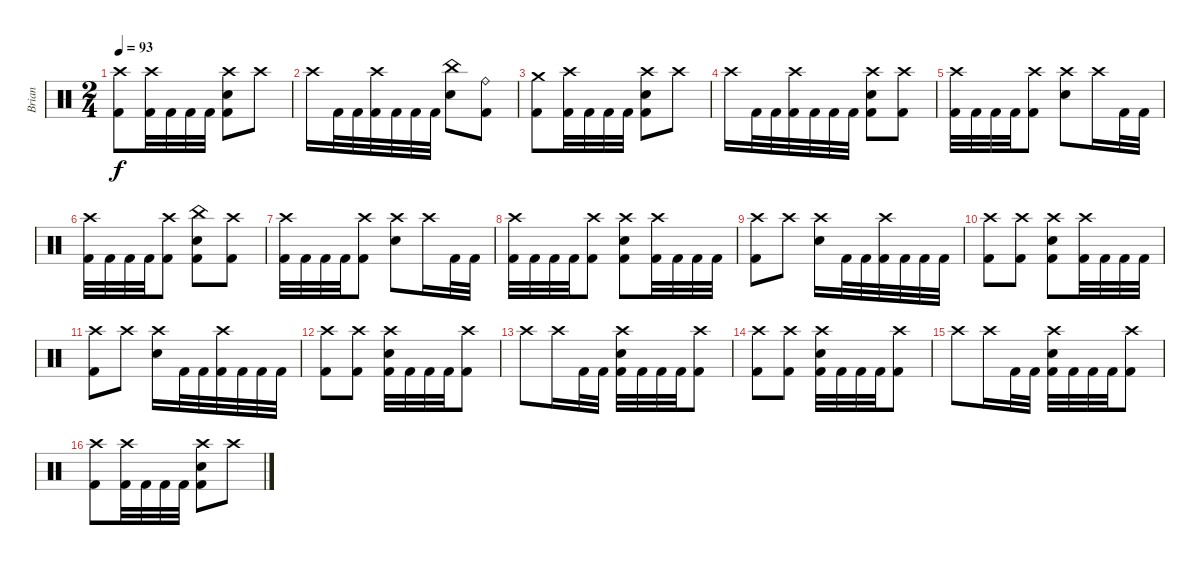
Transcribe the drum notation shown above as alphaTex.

\track ("Brian" "Brian") {instrument percussion}
\staff {score}
\articulation defaults
\ts (2 4)
\tempo 93
\clef neutral
\ks c
("Crash high (hit)" "Kick (hit) 2").8{dy f} ("Crash high (hit)" "Kick (hit) 2").32 "Kick (hit) 2".32 "Kick (hit) 2".32 "Kick (hit) 2".32 ("Crash high (hit)" "Electric Snare (hit)" "Kick (hit) 2").8 "Crash high (hit)".8 |
"Crash high (hit)".16 "Kick (hit) 2".32 "Kick (hit) 2".32 ("Crash high (hit)" "Kick (hit) 2").32 "Kick (hit) 2".32 "Kick (hit) 2".32 "Kick (hit) 2".32 ("China (hit)" "Electric Snare (hit)").8 ("Ride (bell)" "Kick (hit) 2").8 |
("Crash medium (hit)" "Kick (hit) 2").8 ("Crash high (hit)" "Kick (hit) 2").32 "Kick (hit) 2".32 "Kick (hit) 2".32 "Kick (hit) 2".32 ("Crash high (hit)" "Electric Snare (hit)" "Kick (hit) 2").8 "Crash high (hit)".8 |
"Crash high (hit)".16 "Kick (hit) 2".32 "Kick (hit) 2".32 ("Crash high (hit)" "Kick (hit) 2").32 "Kick (hit) 2".32 "Kick (hit) 2".32 "Kick (hit) 2".32 ("Crash high (hit)" "Electric Snare (hit)" "Kick (hit) 2").8 ("Crash high (hit)" "Kick (hit) 2").8 |
("Crash high (hit)" "Kick (hit) 2").32 "Kick (hit) 2".32 "Kick (hit) 2".32 "Kick (hit) 2".32 ("Crash high (hit)" "Kick (hit) 2").8 ("Crash high (hit)" "Electric Snare (hit)").8 "Crash high (hit)".16 "Kick (hit) 2".32 "Kick (hit) 2".32 |
("Crash high (hit)" "Kick (hit) 2").32 "Kick (hit) 2".32 "Kick (hit) 2".32 "Kick (hit) 2".32 ("Crash high (hit)" "Kick (hit) 2").8 ("China (hit)" "Electric Snare (hit)" "Kick (hit) 2").8 ("Crash high (hit)" "Kick (hit) 2").8 |
("Crash high (hit)" "Kick (hit) 2").32 "Kick (hit) 2".32 "Kick (hit) 2".32 "Kick (hit) 2".32 ("Crash high (hit)" "Kick (hit) 2").8 ("Crash high (hit)" "Electric Snare (hit)").8 "Crash high (hit)".16 "Kick (hit) 2".32 "Kick (hit) 2".32 |
("Crash high (hit)" "Kick (hit) 2").32 "Kick (hit) 2".32 "Kick (hit) 2".32 "Kick (hit) 2".32 ("Crash high (hit)" "Kick (hit) 2").8 ("Crash high (hit)" "Electric Snare (hit)" "Kick (hit) 2").8 ("Crash high (hit)" "Kick (hit) 2").32 "Kick (hit) 2".32 "Kick (hit) 2".32 "Kick (hit) 2".32 |
("Crash high (hit)" "Kick (hit) 2").8 "Crash high (hit)".8 ("Crash high (hit)" "Electric Snare (hit)").16 "Kick (hit) 2".32 "Kick (hit) 2".32 ("Crash high (hit)" "Kick (hit) 2").32 "Kick (hit) 2".32 "Kick (hit) 2".32 "Kick (hit) 2".32 |
("Crash high (hit)" "Kick (hit) 2").8 ("Crash high (hit)" "Kick (hit) 2").8 ("Crash high (hit)" "Electric Snare (hit)" "Kick (hit) 2").8 ("Crash high (hit)" "Kick (hit) 2").32 "Kick (hit) 2".32 "Kick (hit) 2".32 "Kick (hit) 2".32 |
("Crash high (hit)" "Kick (hit) 2").8 "Crash high (hit)".8 ("Crash high (hit)" "Electric Snare (hit)").16 "Kick (hit) 2".32 "Kick (hit) 2".32 ("Crash high (hit)" "Kick (hit) 2").32 "Kick (hit) 2".32 "Kick (hit) 2".32 "Kick (hit) 2".32 |
("Crash high (hit)" "Kick (hit) 2").8 ("Crash high (hit)" "Kick (hit) 2").8 ("Crash high (hit)" "Electric Snare (hit)" "Kick (hit) 2").32 "Kick (hit) 2".32 "Kick (hit) 2".32 "Kick (hit) 2".32 ("Crash high (hit)" "Kick (hit) 2").8 |
"Crash high (hit)".8 "Crash high (hit)".16 "Kick (hit) 2".32 "Kick (hit) 2".32 ("Crash high (hit)" "Electric Snare (hit)" "Kick (hit) 2").32 "Kick (hit) 2".32 "Kick (hit) 2".32 "Kick (hit) 2".32 ("Crash high (hit)" "Kick (hit) 2").8 |
("Crash high (hit)" "Kick (hit) 2").8 ("Crash high (hit)" "Kick (hit) 2").8 ("Crash high (hit)" "Electric Snare (hit)" "Kick (hit) 2").32 "Kick (hit) 2".32 "Kick (hit) 2".32 "Kick (hit) 2".32 ("Crash high (hit)" "Kick (hit) 2").8 |
"Crash high (hit)".8 "Crash high (hit)".16 "Kick (hit) 2".32 "Kick (hit) 2".32 ("Crash high (hit)" "Electric Snare (hit)" "Kick (hit) 2").32 "Kick (hit) 2".32 "Kick (hit) 2".32 "Kick (hit) 2".32 ("Crash high (hit)" "Kick (hit) 2").8 |
("Crash high (hit)" "Kick (hit) 2").8 ("Crash high (hit)" "Kick (hit) 2").32 "Kick (hit) 2".32 "Kick (hit) 2".32 "Kick (hit) 2".32 ("Crash high (hit)" "Electric Snare (hit)" "Kick (hit) 2").8 "Crash high (hit)".8
